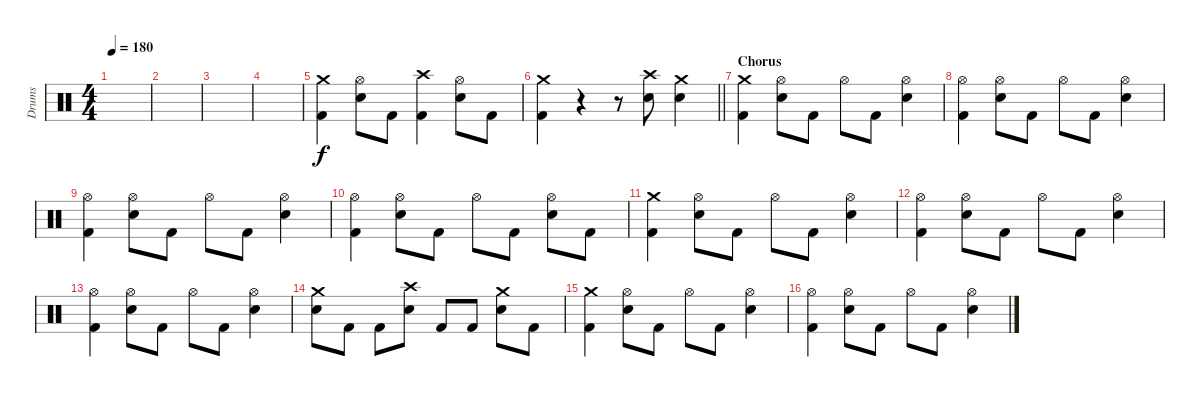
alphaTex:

\track ("Drums" "Drums") {instrument percussion}
\staff {score}
\articulation defaults
\ts (4 4)
\tempo 180
\clef neutral
\ks c
|
|
|
|
("Crash medium (hit)" "Kick (hit) 2").4 ("Hi-Hat (open)" "Electric Snare (hit)").8 "Kick (hit) 2".8 ("Crash high (hit)" "Kick (hit) 2").4 ("Hi-Hat (open)" "Electric Snare (hit)").8 "Kick (hit) 2".8 |
\barLineRight lightlight
("Crash medium (hit)" "Kick (hit) 2").4 r.4 r.8 ("Crash high (hit)" "Electric Snare (hit)").8 ("Crash medium (hit)" "Electric Snare (hit)").4 |
\section ("" "Chorus")
("Crash medium (hit)" "Kick (hit) 2").4 ("Hi-Hat (open)" "Electric Snare (hit)").8 "Kick (hit) 2".8 "Hi-Hat (open)".8 "Kick (hit) 2".8 ("Hi-Hat (open)" "Electric Snare (hit)").4 |
("Hi-Hat (open)" "Kick (hit) 2").4 ("Hi-Hat (open)" "Electric Snare (hit)").8 "Kick (hit) 2".8 "Hi-Hat (open)".8 "Kick (hit) 2".8 ("Hi-Hat (open)" "Electric Snare (hit)").4 |
("Hi-Hat (open)" "Kick (hit) 2").4 ("Hi-Hat (open)" "Electric Snare (hit)").8 "Kick (hit) 2".8 "Hi-Hat (open)".8 "Kick (hit) 2".8 ("Hi-Hat (open)" "Electric Snare (hit)").4 |
("Hi-Hat (open)" "Kick (hit) 2").4 ("Hi-Hat (open)" "Electric Snare (hit)").8 "Kick (hit) 2".8 "Hi-Hat (open)".8 "Kick (hit) 2".8 ("Hi-Hat (open)" "Electric Snare (hit)").8 "Kick (hit) 2".8 |
("Crash medium (hit)" "Kick (hit) 2").4 ("Hi-Hat (open)" "Electric Snare (hit)").8 "Kick (hit) 2".8 "Hi-Hat (open)".8 "Kick (hit) 2".8 ("Hi-Hat (open)" "Electric Snare (hit)").4 |
("Hi-Hat (open)" "Kick (hit) 2").4 ("Hi-Hat (open)" "Electric Snare (hit)").8 "Kick (hit) 2".8 "Hi-Hat (open)".8 "Kick (hit) 2".8 ("Hi-Hat (open)" "Electric Snare (hit)").4 |
("Hi-Hat (open)" "Kick (hit) 2").4 ("Hi-Hat (open)" "Electric Snare (hit)").8 "Kick (hit) 2".8 "Hi-Hat (open)".8 "Kick (hit) 2".8 ("Hi-Hat (open)" "Electric Snare (hit)").4 |
("Crash medium (hit)" "Electric Snare (hit)").8 "Kick (hit) 2".8 "Kick (hit) 2".8 ("Crash high (hit)" "Electric Snare (hit)").8 "Kick (hit) 2".8 "Kick (hit) 2".8 ("Crash medium (hit)" "Electric Snare (hit)").8 "Kick (hit) 2".8 |
("Crash medium (hit)" "Kick (hit) 2").4 ("Hi-Hat (open)" "Electric Snare (hit)").8 "Kick (hit) 2".8 "Hi-Hat (open)".8 "Kick (hit) 2".8 ("Hi-Hat (open)" "Electric Snare (hit)").4 |
("Hi-Hat (open)" "Kick (hit) 2").4 ("Hi-Hat (open)" "Electric Snare (hit)").8 "Kick (hit) 2".8 "Hi-Hat (open)".8 "Kick (hit) 2".8 ("Hi-Hat (open)" "Electric Snare (hit)").4
